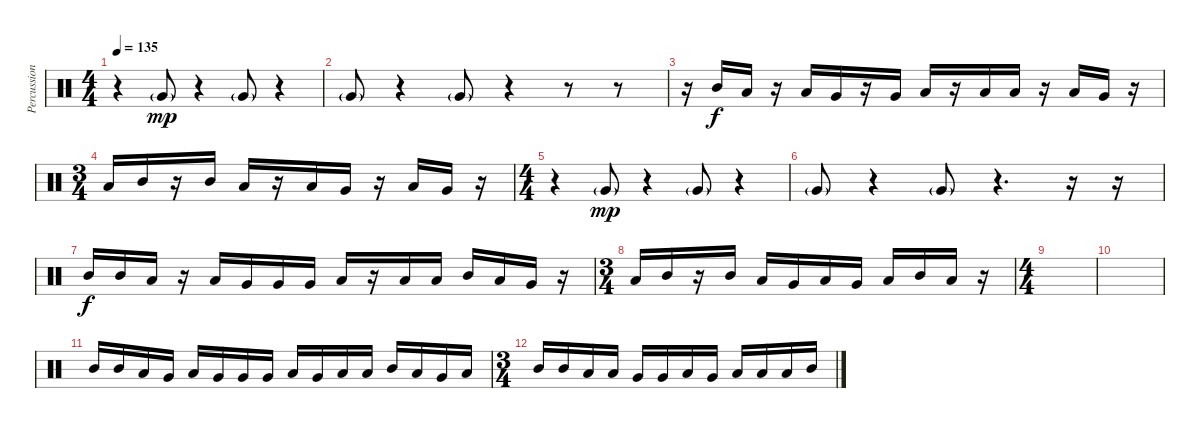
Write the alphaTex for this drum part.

\track ("Percussions" "Percussion") {instrument percussion}
\staff {score}
\articulation defaults
\ts (4 4)
\tempo 135
\clef neutral
\ks c
r.4{dy f} "Very Low Tom (hit)"{g}.8{dy mp} r.4 "Very Low Tom (hit)"{g}.8 r.4 |
"Very Low Tom (hit)"{g}.8 r.4 "Very Low Tom (hit)"{g}.8 r.4 r.8 r.8 |
r.16 "Mid Tom (hit)".16{dy f} "Low Tom (hit)".16 r.16 "Low Tom (hit)".16 "Very Low Tom (hit)".16 r.16 "Very Low Tom (hit)".16 "Low Floor Tom (hit)".16 r.16 "Low Floor Tom (hit)".16 "Low Floor Tom (hit)".16 r.16 "Low Tom (hit)".16 "Very Low Tom (hit)".16 r.16 |
\ts (3 4)
"Low Tom (hit)".16 "Mid Tom (hit)".16 r.16 "Mid Tom (hit)".16 "Low Tom (hit)".16 r.16 "Low Tom (hit)".16 "Very Low Tom (hit)".16 r.16 "Low Tom (hit)".16 "Very Low Tom (hit)".16 r.16 |
\ts (4 4)
r.4 "Very Low Tom (hit)"{g}.8{dy mp} r.4 "Very Low Tom (hit)"{g}.8 r.4 |
"Very Low Tom (hit)"{g}.8 r.4 "Very Low Tom (hit)"{g}.8 r.4{d} r.16 r.16 |
"Mid Tom (hit)".16{dy f} "Mid Tom (hit)".16 "Low Tom (hit)".16 r.16 "Low Tom (hit)".16 "Very Low Tom (hit)".16 "Very Low Tom (hit)".16 "Very Low Tom (hit)".16 "Low Floor Tom (hit)".16 r.16 "Low Floor Tom (hit)".16 "Low Floor Tom (hit)".16 "Mid Tom (hit)".16 "Low Tom (hit)".16 "Very Low Tom (hit)".16 r.16 |
\ts (3 4)
"Low Tom (hit)".16 "Mid Tom (hit)".16 r.16 "Mid Tom (hit)".16 "Low Tom (hit)".16 "Very Low Tom (hit)".16 "Low Tom (hit)".16 "Very Low Tom (hit)".16 "Low Floor Tom (hit)".16 "Mid Tom (hit)".16 "Low Tom (hit)".16 r.16 |
\ts (4 4)
|
|
"Mid Tom (hit)".16 "Mid Tom (hit)".16 "Low Tom (hit)".16 "Very Low Tom (hit)".16 "Low Tom (hit)".16 "Very Low Tom (hit)".16 "Very Low Tom (hit)".16 "Very Low Tom (hit)".16 "Low Floor Tom (hit)".16 "Very Low Tom (hit)".16 "Low Floor Tom (hit)".16 "Low Floor Tom (hit)".16 "Mid Tom (hit)".16 "Low Tom (hit)".16 "Very Low Tom (hit)".16 "Low Tom (hit)".16 |
\ts (3 4)
"Mid Tom (hit)".16 "Mid Tom (hit)".16 "Low Tom (hit)".16 "Low Tom (hit)".16 "Very Low Tom (hit)".16 "Very Low Tom (hit)".16 "Low Floor Tom (hit)".16 "Very Low Tom (hit)".16 "Low Floor Tom (hit)".16 "Low Tom (hit)".16 "Low Floor Tom (hit)".16 "Mid Tom (hit)".16
